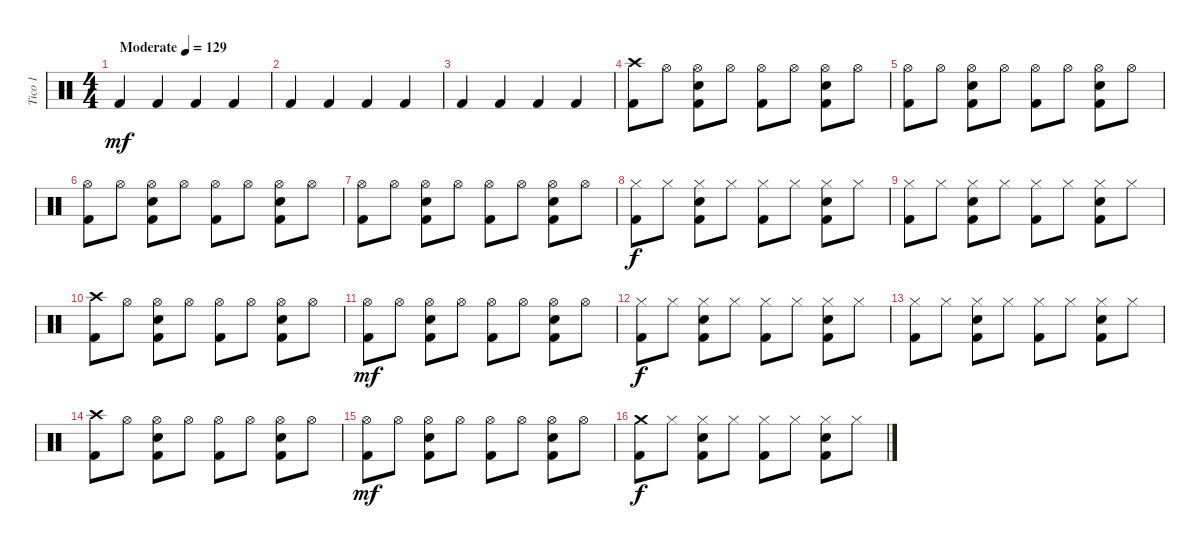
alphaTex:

\track ("Tico 1" "Tico 1") {instrument percussion}
\staff {score}
\articulation defaults
\ts (4 4)
\tempo (129 "Moderate")
\clef neutral
\ks c "Kick (hit) 2".4{dy mf} "Kick (hit) 2".4 "Kick (hit) 2".4 "Kick (hit) 2".4
|
"Kick (hit) 2".4 "Kick (hit) 2".4 "Kick (hit) 2".4 "Kick (hit) 2".4 |
"Kick (hit) 2".4 "Kick (hit) 2".4 "Kick (hit) 2".4 "Kick (hit) 2".4 |
("Crash high (hit)" "Kick (hit) 2").8 "Hi-Hat (open)".8 ("Hi-Hat (open)" "Snare (hit) 2" "Kick (hit) 2").8 "Hi-Hat (open)".8 ("Hi-Hat (open)" "Kick (hit) 2").8 "Hi-Hat (open)".8 ("Hi-Hat (open)" "Snare (hit) 2" "Kick (hit) 2").8 "Hi-Hat (open)".8 |
("Hi-Hat (open)" "Kick (hit) 2").8 "Hi-Hat (open)".8 ("Hi-Hat (open)" "Snare (hit) 2" "Kick (hit) 2").8 "Hi-Hat (open)".8 ("Hi-Hat (open)" "Kick (hit) 2").8 "Hi-Hat (open)".8 ("Hi-Hat (open)" "Snare (hit) 2" "Kick (hit) 2").8 "Hi-Hat (open)".8 |
("Hi-Hat (open)" "Kick (hit) 2").8 "Hi-Hat (open)".8 ("Hi-Hat (open)" "Snare (hit) 2" "Kick (hit) 2").8 "Hi-Hat (open)".8 ("Hi-Hat (open)" "Kick (hit) 2").8 "Hi-Hat (open)".8 ("Hi-Hat (open)" "Snare (hit) 2" "Kick (hit) 2").8 "Hi-Hat (open)".8 |
("Hi-Hat (open)" "Kick (hit) 2").8 "Hi-Hat (open)".8 ("Hi-Hat (open)" "Snare (hit) 2" "Kick (hit) 2").8 "Hi-Hat (open)".8 ("Hi-Hat (open)" "Kick (hit) 2").8 "Hi-Hat (open)".8 ("Hi-Hat (open)" "Snare (hit) 2" "Kick (hit) 2").8 "Hi-Hat (open)".8 |
("Hi-Hat (closed)" "Kick (hit) 2").8{dy f} "Hi-Hat (closed)".8 ("Hi-Hat (closed)" "Electric Snare (hit)" "Kick (hit) 2").8 "Hi-Hat (closed)".8 ("Hi-Hat (closed)" "Kick (hit) 2").8 "Hi-Hat (closed)".8 ("Hi-Hat (closed)" "Electric Snare (hit)" "Kick (hit) 2").8 "Hi-Hat (closed)".8 |
("Hi-Hat (closed)" "Kick (hit) 2").8 "Hi-Hat (closed)".8 ("Hi-Hat (closed)" "Electric Snare (hit)" "Kick (hit) 2").8 "Hi-Hat (closed)".8 ("Hi-Hat (closed)" "Kick (hit) 2").8 "Hi-Hat (closed)".8 ("Hi-Hat (closed)" "Electric Snare (hit)" "Kick (hit) 2").8 "Hi-Hat (closed)".8 |
("Crash high (hit)" "Kick (hit) 2").8 "Hi-Hat (open)".8 ("Hi-Hat (open)" "Snare (hit) 2" "Kick (hit) 2").8 "Hi-Hat (open)".8 ("Hi-Hat (open)" "Kick (hit) 2").8 "Hi-Hat (open)".8 ("Hi-Hat (open)" "Snare (hit) 2" "Kick (hit) 2").8 "Hi-Hat (open)".8 |
("Hi-Hat (open)" "Kick (hit) 2").8{dy mf} "Hi-Hat (open)".8 ("Hi-Hat (open)" "Snare (hit) 2" "Kick (hit) 2").8 "Hi-Hat (open)".8 ("Hi-Hat (open)" "Kick (hit) 2").8 "Hi-Hat (open)".8 ("Hi-Hat (open)" "Snare (hit) 2" "Kick (hit) 2").8 "Hi-Hat (open)".8 |
("Hi-Hat (closed)" "Kick (hit) 2").8{dy f} "Hi-Hat (closed)".8 ("Hi-Hat (closed)" "Electric Snare (hit)" "Kick (hit) 2").8 "Hi-Hat (closed)".8 ("Hi-Hat (closed)" "Kick (hit) 2").8 "Hi-Hat (closed)".8 ("Hi-Hat (closed)" "Electric Snare (hit)" "Kick (hit) 2").8 "Hi-Hat (closed)".8 |
("Hi-Hat (closed)" "Kick (hit) 2").8 "Hi-Hat (closed)".8 ("Hi-Hat (closed)" "Electric Snare (hit)" "Kick (hit) 2").8 "Hi-Hat (closed)".8 ("Hi-Hat (closed)" "Kick (hit) 2").8 "Hi-Hat (closed)".8 ("Hi-Hat (closed)" "Electric Snare (hit)" "Kick (hit) 2").8 "Hi-Hat (closed)".8 |
("Crash high (hit)" "Kick (hit) 2").8 "Hi-Hat (open)".8 ("Hi-Hat (open)" "Snare (hit) 2" "Kick (hit) 2").8 "Hi-Hat (open)".8 ("Hi-Hat (open)" "Kick (hit) 2").8 "Hi-Hat (open)".8 ("Hi-Hat (open)" "Snare (hit) 2" "Kick (hit) 2").8 "Hi-Hat (open)".8 |
("Hi-Hat (open)" "Kick (hit) 2").8{dy mf} "Hi-Hat (open)".8 ("Hi-Hat (open)" "Snare (hit) 2" "Kick (hit) 2").8 "Hi-Hat (open)".8 ("Hi-Hat (open)" "Kick (hit) 2").8 "Hi-Hat (open)".8 ("Hi-Hat (open)" "Snare (hit) 2" "Kick (hit) 2").8 "Hi-Hat (open)".8 |
("Crash medium (hit)" "Kick (hit) 2").8{dy f} "Hi-Hat (closed)".8 ("Hi-Hat (closed)" "Snare (hit) 2" "Kick (hit) 2").8 "Hi-Hat (closed)".8 ("Hi-Hat (closed)" "Kick (hit) 2").8 "Hi-Hat (closed)".8 ("Hi-Hat (closed)" "Snare (hit) 2" "Kick (hit) 2").8 "Hi-Hat (closed)".8
